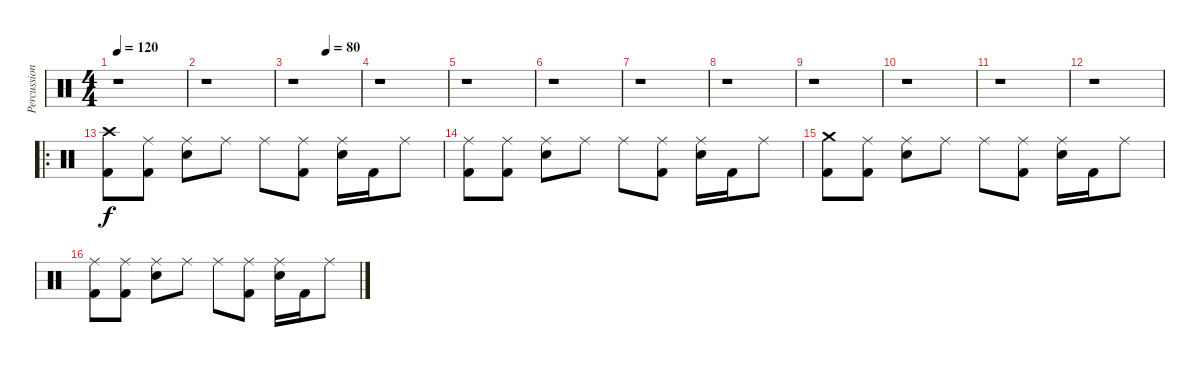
\track ("Percussions" "Percussion") {instrument percussion}
\staff {score}
\articulation defaults
\ts (4 4)
\tempo 120
\clef neutral
\ks c
r.1{dy f} |
r.1 |
\tempo (80 0.5)
r.1 |
r.1 |
r.1 |
r.1 |
r.1 |
r.1 |
r.1 |
r.1 |
r.1 |
r.1 |
\ro
("Crash high (hit)" "Kick (hit) 2").8 ("Ride (middle)" "Kick (hit) 2").8 ("Ride (middle)" "Electric Snare (hit)").8 "Ride (middle)".8 "Ride (middle)".8 ("Ride (middle)" "Kick (hit) 2").8 ("Ride (middle)" "Electric Snare (hit)").16 "Kick (hit) 2".16 "Ride (middle)".8 |
("Ride (middle)" "Kick (hit) 2").8 ("Ride (middle)" "Kick (hit) 2").8 ("Ride (middle)" "Electric Snare (hit)").8 "Ride (middle)".8 "Ride (middle)".8 ("Ride (middle)" "Kick (hit) 2").8 ("Ride (middle)" "Electric Snare (hit)").16 "Kick (hit) 2".16 "Ride (middle)".8 |
("Crash medium (hit)" "Kick (hit) 2").8 ("Ride (middle)" "Kick (hit) 2").8 ("Ride (middle)" "Electric Snare (hit)").8 "Ride (middle)".8 "Ride (middle)".8 ("Ride (middle)" "Kick (hit) 2").8 ("Ride (middle)" "Electric Snare (hit)").16 "Kick (hit) 2".16 "Ride (middle)".8 |
("Ride (middle)" "Kick (hit) 2").8 ("Ride (middle)" "Kick (hit) 2").8 ("Ride (middle)" "Electric Snare (hit)").8 "Ride (middle)".8 "Ride (middle)".8 ("Ride (middle)" "Kick (hit) 2").8 ("Ride (middle)" "Electric Snare (hit)").16 "Kick (hit) 2".16 "Ride (middle)".8
